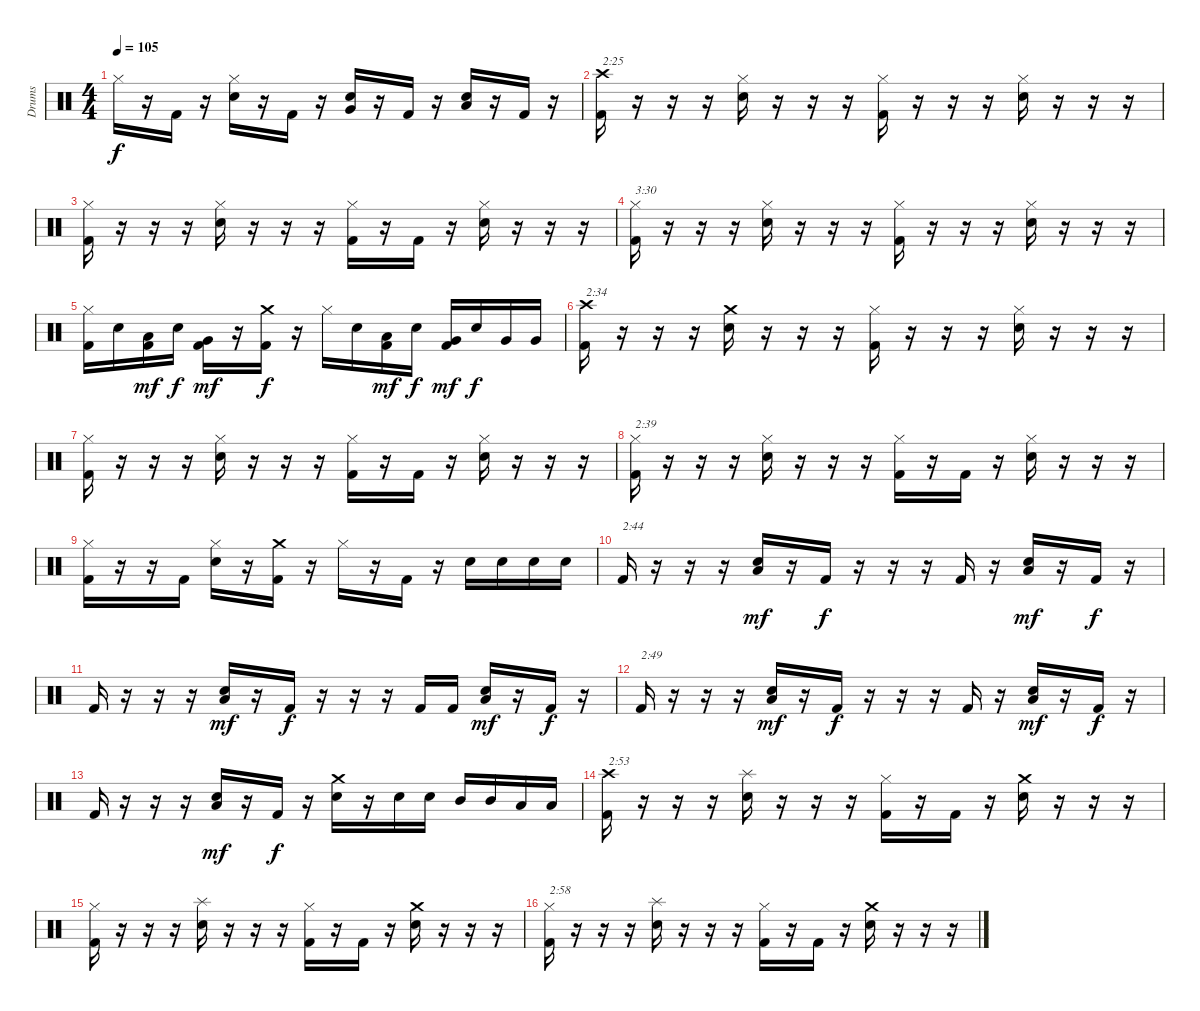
\track ("Drums" "Drums") {instrument percussion}
\staff {score}
\articulation defaults
\ts (4 4)
\tempo 105
\clef neutral
\ks c "Hi-Hat (closed)".16{dy f}
r.16 "Kick (hit) 2".16 r.16 ("Hi-Hat (closed)" "Electric Snare (hit)").16 r.16 "Kick (hit) 2".16 r.16 ("Very Low Tom (hit)" "Electric Snare (hit)").16 r.16 "Kick (hit) 2".16 r.16 ("Low Floor Tom (hit)" "Electric Snare (hit)").16 r.16 "Kick (hit) 2".16 r.16 |
("Crash high (hit)" "Kick (hit) 2").16{txt "2:25"} r.16 r.16 r.16 ("Hi-Hat (closed)" "Electric Snare (hit)").16 r.16 r.16 r.16 ("Hi-Hat (closed)" "Kick (hit) 2").16 r.16 r.16 r.16 ("Hi-Hat (closed)" "Electric Snare (hit)").16 r.16 r.16 r.16 |
("Hi-Hat (closed)" "Kick (hit) 2").16 r.16 r.16 r.16 ("Hi-Hat (closed)" "Electric Snare (hit)").16 r.16 r.16 r.16 ("Hi-Hat (closed)" "Kick (hit) 2").16 r.16 "Kick (hit) 2".16 r.16 ("Hi-Hat (closed)" "Electric Snare (hit)").16 r.16 r.16 r.16 |
("Hi-Hat (closed)" "Kick (hit) 2").16{txt "3:30"} r.16 r.16 r.16 ("Hi-Hat (closed)" "Electric Snare (hit)").16 r.16 r.16 r.16 ("Hi-Hat (closed)" "Kick (hit) 2").16 r.16 r.16 r.16 ("Hi-Hat (closed)" "Electric Snare (hit)").16 r.16 r.16 r.16 |
("Hi-Hat (closed)" "Kick (hit) 2").16 "Electric Snare (hit)".16 ("Low Tom (hit)" "Kick (hit) 2").16{dy mf} "Electric Snare (hit)".16{dy f} ("Very Low Tom (hit)" "Kick (hit) 2").16{dy mf} r.16 ("Crash medium (hit)" "Kick (hit) 2").16{dy f} r.16 "Hi-Hat (closed)".16 "Electric Snare (hit)".16 ("Low Tom (hit)" "Kick (hit) 2").16{dy mf} "Electric Snare (hit)".16{dy f} ("Very Low Tom (hit)" "Kick (hit) 2").16{dy mf} "Electric Snare (hit)".16{dy f} "Very Low Tom (hit)".16 "Very Low Tom (hit)".16 |
("Crash high (hit)" "Kick (hit) 2").16{txt "2:34"} r.16 r.16 r.16 ("Crash medium (hit)" "Electric Snare (hit)").16 r.16 r.16 r.16 ("Hi-Hat (closed)" "Kick (hit) 2").16 r.16 r.16 r.16 ("Hi-Hat (closed)" "Electric Snare (hit)").16 r.16 r.16 r.16 |
("Hi-Hat (closed)" "Kick (hit) 2").16 r.16 r.16 r.16 ("Hi-Hat (closed)" "Electric Snare (hit)").16 r.16 r.16 r.16 ("Hi-Hat (closed)" "Kick (hit) 2").16 r.16 "Kick (hit) 2".16 r.16 ("Hi-Hat (closed)" "Electric Snare (hit)").16 r.16 r.16 r.16 |
("Hi-Hat (closed)" "Kick (hit) 2").16{txt "2:39"} r.16 r.16 r.16 ("Hi-Hat (closed)" "Electric Snare (hit)").16 r.16 r.16 r.16 ("Hi-Hat (closed)" "Kick (hit) 2").16 r.16 "Kick (hit) 2".16 r.16 ("Hi-Hat (closed)" "Electric Snare (hit)").16 r.16 r.16 r.16 |
("Hi-Hat (closed)" "Kick (hit) 2").16 r.16 r.16 "Kick (hit) 2".16 ("Hi-Hat (closed)" "Electric Snare (hit)").16 r.16 ("Crash medium (hit)" "Kick (hit) 2").16 r.16 "Hi-Hat (closed)".16 r.16 "Kick (hit) 2".16 r.16 "Electric Snare (hit)".16 "Electric Snare (hit)".16 "Electric Snare (hit)".16 "Electric Snare (hit)".16 |
"Kick (hit) 2".16{txt "2:44"} r.16 r.16 r.16 ("Low Floor Tom (hit)" "Electric Snare (hit)").16{dy mf} r.16 "Kick (hit) 2".16{dy f} r.16 r.16 r.16 "Kick (hit) 2".16 r.16 ("Low Floor Tom (hit)" "Electric Snare (hit)").16{dy mf} r.16 "Kick (hit) 2".16{dy f} r.16 |
"Kick (hit) 2".16 r.16 r.16 r.16 ("Low Floor Tom (hit)" "Electric Snare (hit)").16{dy mf} r.16 "Kick (hit) 2".16{dy f} r.16 r.16 r.16 "Kick (hit) 2".16 "Kick (hit) 2".16 ("Low Floor Tom (hit)" "Electric Snare (hit)").16{dy mf} r.16 "Kick (hit) 2".16{dy f} r.16 |
"Kick (hit) 2".16{txt "2:49"} r.16 r.16 r.16 ("Low Floor Tom (hit)" "Electric Snare (hit)").16{dy mf} r.16 "Kick (hit) 2".16{dy f} r.16 r.16 r.16 "Kick (hit) 2".16 r.16 ("Low Floor Tom (hit)" "Electric Snare (hit)").16{dy mf} r.16 "Kick (hit) 2".16{dy f} r.16 |
"Kick (hit) 2".16 r.16 r.16 r.16 ("Low Floor Tom (hit)" "Electric Snare (hit)").16{dy mf} r.16 "Kick (hit) 2".16{dy f} r.16 ("Crash medium (hit)" "Electric Snare (hit)").16 r.16 "Electric Snare (hit)".16 "Electric Snare (hit)".16 "Mid Tom (hit)".16 "Mid Tom (hit)".16 "Low Tom (hit)".16 "Low Tom (hit)".16 |
("Crash high (hit)" "Kick (hit) 2").16{txt "2:53"} r.16 r.16 r.16 ("Splash (hit)" "Electric Snare (hit)").16 r.16 r.16 r.16 ("Hi-Hat (closed)" "Kick (hit) 2").16 r.16 "Kick (hit) 2".16 r.16 ("Crash medium (hit)" "Electric Snare (hit)").16 r.16 r.16 r.16 |
("Hi-Hat (closed)" "Kick (hit) 2").16 r.16 r.16 r.16 ("Splash (hit)" "Electric Snare (hit)").16 r.16 r.16 r.16 ("Hi-Hat (closed)" "Kick (hit) 2").16 r.16 "Kick (hit) 2".16 r.16 ("Crash medium (hit)" "Electric Snare (hit)").16 r.16 r.16 r.16 |
("Hi-Hat (closed)" "Kick (hit) 2").16{txt "2:58"} r.16 r.16 r.16 ("Splash (hit)" "Electric Snare (hit)").16 r.16 r.16 r.16 ("Hi-Hat (closed)" "Kick (hit) 2").16 r.16 "Kick (hit) 2".16 r.16 ("Crash medium (hit)" "Electric Snare (hit)").16 r.16 r.16 r.16
